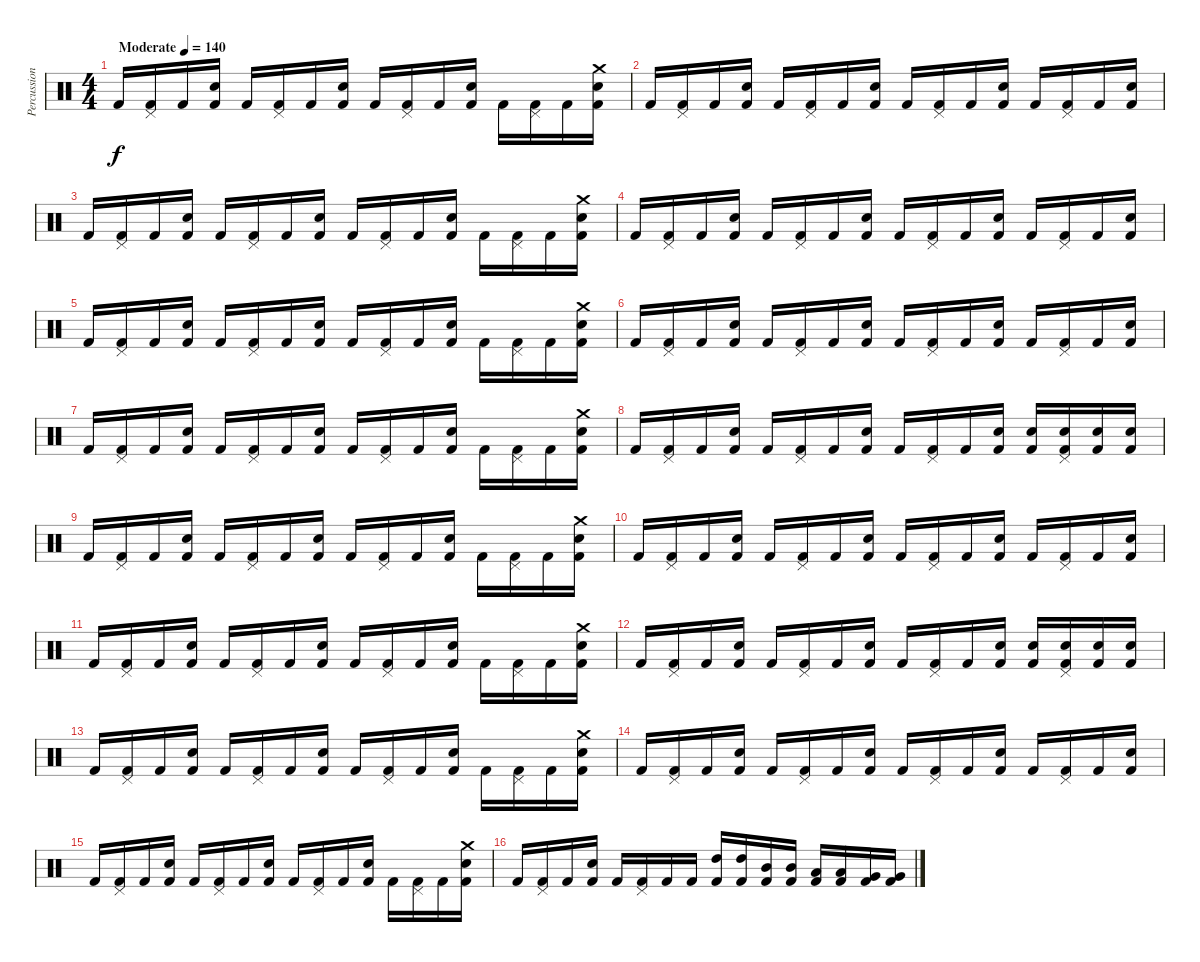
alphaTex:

\track ("Percussion" "Percussion") {instrument percussion}
\staff {score}
\articulation defaults
\ts (4 4)
\tempo (140 "Moderate")
\clef neutral
\ks c "Kick (hit) 2".16{dy f}
("Pedal Hi-Hat (hit)" "Kick (hit) 2").16 "Kick (hit) 2".16 ("Snare (hit) 2" "Kick (hit) 2").16 "Kick (hit) 2".16 ("Pedal Hi-Hat (hit)" "Kick (hit) 2").16 "Kick (hit) 2".16 ("Snare (hit) 2" "Kick (hit) 2").16 "Kick (hit) 2".16 ("Pedal Hi-Hat (hit)" "Kick (hit) 2").16 "Kick (hit) 2".16 ("Snare (hit) 2" "Kick (hit) 2").16 "Kick (hit) 2".16 ("Pedal Hi-Hat (hit)" "Kick (hit) 2").16 "Kick (hit) 2".16 ("Crash medium (hit)" "Snare (hit) 2" "Kick (hit) 2").16 |
"Kick (hit) 2".16 ("Pedal Hi-Hat (hit)" "Kick (hit) 2").16 "Kick (hit) 2".16 ("Snare (hit) 2" "Kick (hit) 2").16 "Kick (hit) 2".16 ("Pedal Hi-Hat (hit)" "Kick (hit) 2").16 "Kick (hit) 2".16 ("Snare (hit) 2" "Kick (hit) 2").16 "Kick (hit) 2".16 ("Pedal Hi-Hat (hit)" "Kick (hit) 2").16 "Kick (hit) 2".16 ("Snare (hit) 2" "Kick (hit) 2").16 "Kick (hit) 2".16 ("Pedal Hi-Hat (hit)" "Kick (hit) 2").16 "Kick (hit) 2".16 ("Snare (hit) 2" "Kick (hit) 2").16 |
"Kick (hit) 2".16 ("Pedal Hi-Hat (hit)" "Kick (hit) 2").16 "Kick (hit) 2".16 ("Snare (hit) 2" "Kick (hit) 2").16 "Kick (hit) 2".16 ("Pedal Hi-Hat (hit)" "Kick (hit) 2").16 "Kick (hit) 2".16 ("Snare (hit) 2" "Kick (hit) 2").16 "Kick (hit) 2".16 ("Pedal Hi-Hat (hit)" "Kick (hit) 2").16 "Kick (hit) 2".16 ("Snare (hit) 2" "Kick (hit) 2").16 "Kick (hit) 2".16 ("Pedal Hi-Hat (hit)" "Kick (hit) 2").16 "Kick (hit) 2".16 ("Crash medium (hit)" "Snare (hit) 2" "Kick (hit) 2").16 |
"Kick (hit) 2".16 ("Pedal Hi-Hat (hit)" "Kick (hit) 2").16 "Kick (hit) 2".16 ("Snare (hit) 2" "Kick (hit) 2").16 "Kick (hit) 2".16 ("Pedal Hi-Hat (hit)" "Kick (hit) 2").16 "Kick (hit) 2".16 ("Snare (hit) 2" "Kick (hit) 2").16 "Kick (hit) 2".16 ("Pedal Hi-Hat (hit)" "Kick (hit) 2").16 "Kick (hit) 2".16 ("Snare (hit) 2" "Kick (hit) 2").16 "Kick (hit) 2".16 ("Pedal Hi-Hat (hit)" "Kick (hit) 2").16 "Kick (hit) 2".16 ("Snare (hit) 2" "Kick (hit) 2").16 |
"Kick (hit) 2".16 ("Pedal Hi-Hat (hit)" "Kick (hit) 2").16 "Kick (hit) 2".16 ("Snare (hit) 2" "Kick (hit) 2").16 "Kick (hit) 2".16 ("Pedal Hi-Hat (hit)" "Kick (hit) 2").16 "Kick (hit) 2".16 ("Snare (hit) 2" "Kick (hit) 2").16 "Kick (hit) 2".16 ("Pedal Hi-Hat (hit)" "Kick (hit) 2").16 "Kick (hit) 2".16 ("Snare (hit) 2" "Kick (hit) 2").16 "Kick (hit) 2".16 ("Pedal Hi-Hat (hit)" "Kick (hit) 2").16 "Kick (hit) 2".16 ("Crash medium (hit)" "Snare (hit) 2" "Kick (hit) 2").16 |
"Kick (hit) 2".16 ("Pedal Hi-Hat (hit)" "Kick (hit) 2").16 "Kick (hit) 2".16 ("Snare (hit) 2" "Kick (hit) 2").16 "Kick (hit) 2".16 ("Pedal Hi-Hat (hit)" "Kick (hit) 2").16 "Kick (hit) 2".16 ("Snare (hit) 2" "Kick (hit) 2").16 "Kick (hit) 2".16 ("Pedal Hi-Hat (hit)" "Kick (hit) 2").16 "Kick (hit) 2".16 ("Snare (hit) 2" "Kick (hit) 2").16 "Kick (hit) 2".16 ("Pedal Hi-Hat (hit)" "Kick (hit) 2").16 "Kick (hit) 2".16 ("Snare (hit) 2" "Kick (hit) 2").16 |
"Kick (hit) 2".16 ("Pedal Hi-Hat (hit)" "Kick (hit) 2").16 "Kick (hit) 2".16 ("Snare (hit) 2" "Kick (hit) 2").16 "Kick (hit) 2".16 ("Pedal Hi-Hat (hit)" "Kick (hit) 2").16 "Kick (hit) 2".16 ("Snare (hit) 2" "Kick (hit) 2").16 "Kick (hit) 2".16 ("Pedal Hi-Hat (hit)" "Kick (hit) 2").16 "Kick (hit) 2".16 ("Snare (hit) 2" "Kick (hit) 2").16 "Kick (hit) 2".16 ("Pedal Hi-Hat (hit)" "Kick (hit) 2").16 "Kick (hit) 2".16 ("Crash medium (hit)" "Snare (hit) 2" "Kick (hit) 2").16 |
"Kick (hit) 2".16 ("Pedal Hi-Hat (hit)" "Kick (hit) 2").16 "Kick (hit) 2".16 ("Snare (hit) 2" "Kick (hit) 2").16 "Kick (hit) 2".16 ("Pedal Hi-Hat (hit)" "Kick (hit) 2").16 "Kick (hit) 2".16 ("Snare (hit) 2" "Kick (hit) 2").16 "Kick (hit) 2".16 ("Pedal Hi-Hat (hit)" "Kick (hit) 2").16 "Kick (hit) 2".16 ("Snare (hit) 2" "Kick (hit) 2").16 ("Snare (hit) 2" "Kick (hit) 2").16 ("Pedal Hi-Hat (hit)" "Snare (hit) 2" "Kick (hit) 2").16 ("Snare (hit) 2" "Kick (hit) 2").16 ("Snare (hit) 2" "Kick (hit) 2").16 |
"Kick (hit) 2".16 ("Pedal Hi-Hat (hit)" "Kick (hit) 2").16 "Kick (hit) 2".16 ("Snare (hit) 2" "Kick (hit) 2").16 "Kick (hit) 2".16 ("Pedal Hi-Hat (hit)" "Kick (hit) 2").16 "Kick (hit) 2".16 ("Snare (hit) 2" "Kick (hit) 2").16 "Kick (hit) 2".16 ("Pedal Hi-Hat (hit)" "Kick (hit) 2").16 "Kick (hit) 2".16 ("Snare (hit) 2" "Kick (hit) 2").16 "Kick (hit) 2".16 ("Pedal Hi-Hat (hit)" "Kick (hit) 2").16 "Kick (hit) 2".16 ("Crash medium (hit)" "Snare (hit) 2" "Kick (hit) 2").16 |
"Kick (hit) 2".16 ("Pedal Hi-Hat (hit)" "Kick (hit) 2").16 "Kick (hit) 2".16 ("Snare (hit) 2" "Kick (hit) 2").16 "Kick (hit) 2".16 ("Pedal Hi-Hat (hit)" "Kick (hit) 2").16 "Kick (hit) 2".16 ("Snare (hit) 2" "Kick (hit) 2").16 "Kick (hit) 2".16 ("Pedal Hi-Hat (hit)" "Kick (hit) 2").16 "Kick (hit) 2".16 ("Snare (hit) 2" "Kick (hit) 2").16 "Kick (hit) 2".16 ("Pedal Hi-Hat (hit)" "Kick (hit) 2").16 "Kick (hit) 2".16 ("Snare (hit) 2" "Kick (hit) 2").16 |
"Kick (hit) 2".16 ("Pedal Hi-Hat (hit)" "Kick (hit) 2").16 "Kick (hit) 2".16 ("Snare (hit) 2" "Kick (hit) 2").16 "Kick (hit) 2".16 ("Pedal Hi-Hat (hit)" "Kick (hit) 2").16 "Kick (hit) 2".16 ("Snare (hit) 2" "Kick (hit) 2").16 "Kick (hit) 2".16 ("Pedal Hi-Hat (hit)" "Kick (hit) 2").16 "Kick (hit) 2".16 ("Snare (hit) 2" "Kick (hit) 2").16 "Kick (hit) 2".16 ("Pedal Hi-Hat (hit)" "Kick (hit) 2").16 "Kick (hit) 2".16 ("Crash medium (hit)" "Snare (hit) 2" "Kick (hit) 2").16 |
"Kick (hit) 2".16 ("Pedal Hi-Hat (hit)" "Kick (hit) 2").16 "Kick (hit) 2".16 ("Snare (hit) 2" "Kick (hit) 2").16 "Kick (hit) 2".16 ("Pedal Hi-Hat (hit)" "Kick (hit) 2").16 "Kick (hit) 2".16 ("Snare (hit) 2" "Kick (hit) 2").16 "Kick (hit) 2".16 ("Pedal Hi-Hat (hit)" "Kick (hit) 2").16 "Kick (hit) 2".16 ("Snare (hit) 2" "Kick (hit) 2").16 ("Snare (hit) 2" "Kick (hit) 2").16 ("Pedal Hi-Hat (hit)" "Snare (hit) 2" "Kick (hit) 2").16 ("Snare (hit) 2" "Kick (hit) 2").16 ("Snare (hit) 2" "Kick (hit) 2").16 |
"Kick (hit) 2".16 ("Pedal Hi-Hat (hit)" "Kick (hit) 2").16 "Kick (hit) 2".16 ("Snare (hit) 2" "Kick (hit) 2").16 "Kick (hit) 2".16 ("Pedal Hi-Hat (hit)" "Kick (hit) 2").16 "Kick (hit) 2".16 ("Snare (hit) 2" "Kick (hit) 2").16 "Kick (hit) 2".16 ("Pedal Hi-Hat (hit)" "Kick (hit) 2").16 "Kick (hit) 2".16 ("Snare (hit) 2" "Kick (hit) 2").16 "Kick (hit) 2".16 ("Pedal Hi-Hat (hit)" "Kick (hit) 2").16 "Kick (hit) 2".16 ("Crash medium (hit)" "Snare (hit) 2" "Kick (hit) 2").16 |
"Kick (hit) 2".16 ("Pedal Hi-Hat (hit)" "Kick (hit) 2").16 "Kick (hit) 2".16 ("Snare (hit) 2" "Kick (hit) 2").16 "Kick (hit) 2".16 ("Pedal Hi-Hat (hit)" "Kick (hit) 2").16 "Kick (hit) 2".16 ("Snare (hit) 2" "Kick (hit) 2").16 "Kick (hit) 2".16 ("Pedal Hi-Hat (hit)" "Kick (hit) 2").16 "Kick (hit) 2".16 ("Snare (hit) 2" "Kick (hit) 2").16 "Kick (hit) 2".16 ("Pedal Hi-Hat (hit)" "Kick (hit) 2").16 "Kick (hit) 2".16 ("Snare (hit) 2" "Kick (hit) 2").16 |
"Kick (hit) 2".16 ("Pedal Hi-Hat (hit)" "Kick (hit) 2").16 "Kick (hit) 2".16 ("Snare (hit) 2" "Kick (hit) 2").16 "Kick (hit) 2".16 ("Pedal Hi-Hat (hit)" "Kick (hit) 2").16 "Kick (hit) 2".16 ("Snare (hit) 2" "Kick (hit) 2").16 "Kick (hit) 2".16 ("Pedal Hi-Hat (hit)" "Kick (hit) 2").16 "Kick (hit) 2".16 ("Snare (hit) 2" "Kick (hit) 2").16 "Kick (hit) 2".16 ("Pedal Hi-Hat (hit)" "Kick (hit) 2").16 "Kick (hit) 2".16 ("Crash medium (hit)" "Snare (hit) 2" "Kick (hit) 2").16 |
"Kick (hit) 2".16 ("Pedal Hi-Hat (hit)" "Kick (hit) 2").16 "Kick (hit) 2".16 ("Snare (hit) 2" "Kick (hit) 2").16 "Kick (hit) 2".16 ("Pedal Hi-Hat (hit)" "Kick (hit) 2").16 "Kick (hit) 2".16 "Kick (hit) 2".16 ("High Tom (hit)" "Kick (hit) 2").16 ("High Tom (hit)" "Kick (hit) 2").16 ("Mid Tom (hit)" "Kick (hit) 2").16 ("Mid Tom (hit)" "Kick (hit) 2").16 ("Low Tom (hit)" "Kick (hit) 2").16 ("Low Tom (hit)" "Kick (hit) 2").16 ("Very Low Tom (hit)" "Kick (hit) 2").16 ("Very Low Tom (hit)" "Kick (hit) 2").16
